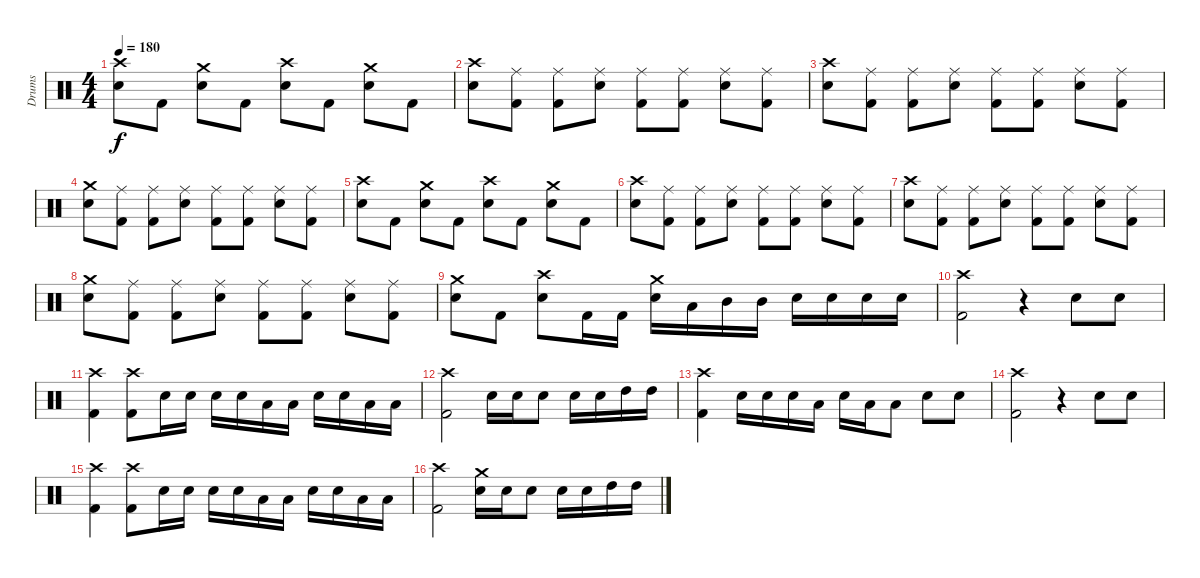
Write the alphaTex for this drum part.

\track ("Drums" "Drums") {instrument percussion}
\staff {score}
\articulation defaults
\ts (4 4)
\tempo 180
\clef neutral
\ks c
("Snare (hit) 2" "Crash high (hit)").8{dy f} "Kick (hit) 2".8 ("Snare (hit) 2" "Crash medium (hit)").8 "Kick (hit) 2".8 ("Crash high (hit)" "Snare (hit) 2").8 "Kick (hit) 2".8 ("Snare (hit) 2" "Crash medium (hit)").8 "Kick (hit) 2".8 |
("Crash high (hit)" "Snare (hit) 2").8 ("Ride (middle)" "Kick (hit) 2").8 ("Ride (middle)" "Kick (hit) 2").8 ("Ride (middle)" "Snare (hit) 2").8 ("Ride (middle)" "Kick (hit) 2").8 ("Ride (middle)" "Kick (hit) 2").8 ("Ride (middle)" "Snare (hit) 2").8 ("Ride (middle)" "Kick (hit) 2").8 |
("Crash high (hit)" "Snare (hit) 2").8 ("Ride (middle)" "Kick (hit) 2").8 ("Ride (middle)" "Kick (hit) 2").8 ("Ride (middle)" "Snare (hit) 2").8 ("Ride (middle)" "Kick (hit) 2").8 ("Ride (middle)" "Kick (hit) 2").8 ("Ride (middle)" "Snare (hit) 2").8 ("Ride (middle)" "Kick (hit) 2").8 |
("Crash medium (hit)" "Snare (hit) 2").8 ("Ride (middle)" "Kick (hit) 2").8 ("Ride (middle)" "Kick (hit) 2").8 ("Ride (middle)" "Snare (hit) 2").8 ("Ride (middle)" "Kick (hit) 2").8 ("Ride (middle)" "Kick (hit) 2").8 ("Ride (middle)" "Snare (hit) 2").8 ("Ride (middle)" "Kick (hit) 2").8 |
("Snare (hit) 2" "Crash high (hit)").8 "Kick (hit) 2".8 ("Snare (hit) 2" "Crash medium (hit)").8 "Kick (hit) 2".8 ("Crash high (hit)" "Snare (hit) 2").8 "Kick (hit) 2".8 ("Snare (hit) 2" "Crash medium (hit)").8 "Kick (hit) 2".8 |
("Crash high (hit)" "Snare (hit) 2").8 ("Ride (middle)" "Kick (hit) 2").8 ("Ride (middle)" "Kick (hit) 2").8 ("Ride (middle)" "Snare (hit) 2").8 ("Ride (middle)" "Kick (hit) 2").8 ("Ride (middle)" "Kick (hit) 2").8 ("Ride (middle)" "Snare (hit) 2").8 ("Ride (middle)" "Kick (hit) 2").8 |
("Crash high (hit)" "Snare (hit) 2").8 ("Ride (middle)" "Kick (hit) 2").8 ("Ride (middle)" "Kick (hit) 2").8 ("Ride (middle)" "Snare (hit) 2").8 ("Ride (middle)" "Kick (hit) 2").8 ("Ride (middle)" "Kick (hit) 2").8 ("Ride (middle)" "Snare (hit) 2").8 ("Ride (middle)" "Kick (hit) 2").8 |
("Crash medium (hit)" "Snare (hit) 2").8 ("Ride (middle)" "Kick (hit) 2").8 ("Ride (middle)" "Kick (hit) 2").8 ("Ride (middle)" "Snare (hit) 2").8 ("Ride (middle)" "Kick (hit) 2").8 ("Ride (middle)" "Kick (hit) 2").8 ("Ride (middle)" "Snare (hit) 2").8 ("Ride (middle)" "Kick (hit) 2").8 |
("Snare (hit) 2" "Crash medium (hit)").8 "Kick (hit) 2".8 ("Snare (hit) 2" "Crash high (hit)").8 "Kick (hit) 2".16 "Kick (hit) 2".16 ("Snare (hit) 2" "Crash medium (hit)").16 "Low Tom (hit)".16 "Mid Tom (hit)".16 "Mid Tom (hit)".16 "Snare (hit) 2".16 "Snare (hit) 2".16 "Snare (hit) 2".16 "Snare (hit) 2".16 |
("Kick (hit) 2" "Crash high (hit)").2 r.4 "Snare (hit) 2".8 "Snare (hit) 2".8 |
("Kick (hit) 2" "Crash high (hit)").4 ("Kick (hit) 2" "Crash high (hit)").8 "Snare (hit) 2".16 "Snare (hit) 2".16 "Snare (hit) 2".16 "Snare (hit) 2".16 "Low Tom (hit)".16 "Low Tom (hit)".16 "Snare (hit) 2".16 "Snare (hit) 2".16 "Low Tom (hit)".16 "Low Tom (hit)".16 |
("Kick (hit) 2" "Crash high (hit)").2 "Snare (hit) 2".16 "Snare (hit) 2".16 "Snare (hit) 2".8 "Snare (hit) 2".16 "Snare (hit) 2".16 "High Tom (hit)".16 "High Tom (hit)".16 |
("Kick (hit) 2" "Crash high (hit)").4 "Snare (hit) 2".16 "Snare (hit) 2".16 "Snare (hit) 2".16 "Low Tom (hit)".16 "Snare (hit) 2".16 "Low Tom (hit)".16 "Low Tom (hit)".8 "Snare (hit) 2".8 "Snare (hit) 2".8 |
("Kick (hit) 2" "Crash high (hit)").2 r.4 "Snare (hit) 2".8 "Snare (hit) 2".8 |
("Kick (hit) 2" "Crash high (hit)").4 ("Kick (hit) 2" "Crash high (hit)").8 "Snare (hit) 2".16 "Snare (hit) 2".16 "Snare (hit) 2".16 "Snare (hit) 2".16 "Low Tom (hit)".16 "Low Tom (hit)".16 "Snare (hit) 2".16 "Snare (hit) 2".16 "Low Tom (hit)".16 "Low Tom (hit)".16 |
("Kick (hit) 2" "Crash high (hit)").2 ("Crash medium (hit)" "Snare (hit) 2").16 "Snare (hit) 2".16 "Snare (hit) 2".8 "Snare (hit) 2".16 "Snare (hit) 2".16 "High Tom (hit)".16 "High Tom (hit)".16
